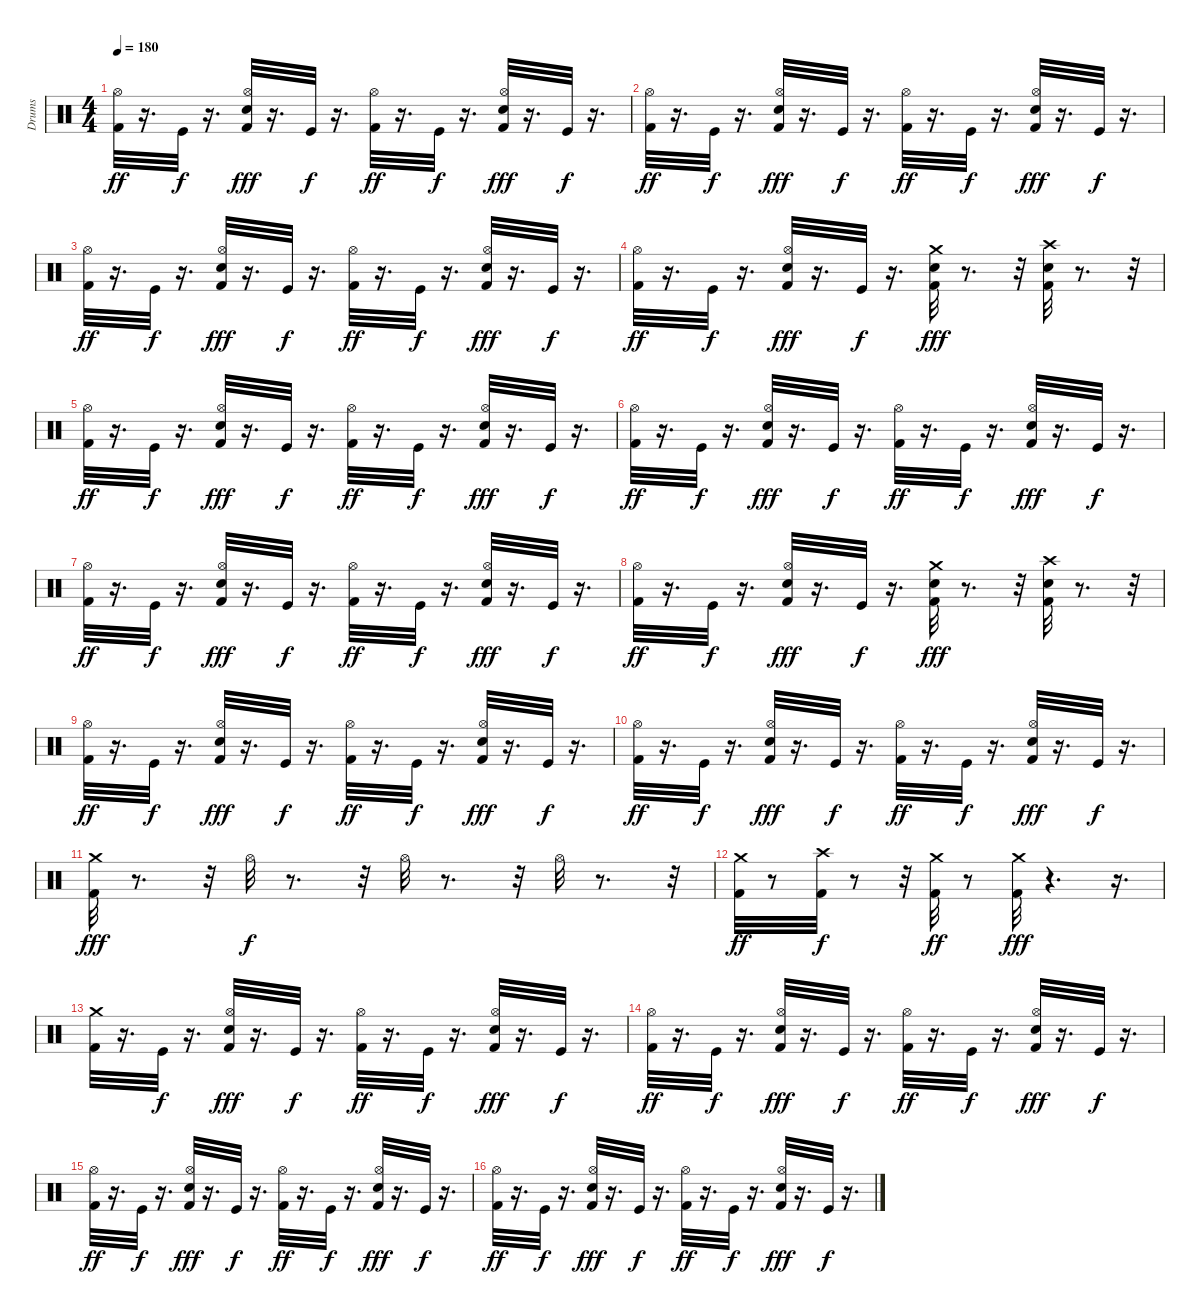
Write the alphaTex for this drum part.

\track ("Drums" "Drums") {instrument percussion}
\staff {score}
\articulation defaults
\ts (4 4)
\tempo 180
\clef neutral
\ks c
("Kick (hit) 2" "Hi-Hat (open)").32{dy ff} r.16{d} "Kick (hit)".32{dy f} r.16{d} ("Snare (hit) 2" "Kick (hit) 2" "Hi-Hat (open)").32{dy fff} r.16{d} "Kick (hit)".32{dy f} r.16{d} ("Kick (hit) 2" "Hi-Hat (open)").32{dy ff} r.16{d} "Kick (hit)".32{dy f} r.16{d} ("Snare (hit) 2" "Kick (hit) 2" "Hi-Hat (open)").32{dy fff} r.16{d} "Kick (hit)".32{dy f} r.16{d} |
("Kick (hit) 2" "Hi-Hat (open)").32{dy ff} r.16{d} "Kick (hit)".32{dy f} r.16{d} ("Snare (hit) 2" "Kick (hit) 2" "Hi-Hat (open)").32{dy fff} r.16{d} "Kick (hit)".32{dy f} r.16{d} ("Kick (hit) 2" "Hi-Hat (open)").32{dy ff} r.16{d} "Kick (hit)".32{dy f} r.16{d} ("Snare (hit) 2" "Kick (hit) 2" "Hi-Hat (open)").32{dy fff} r.16{d} "Kick (hit)".32{dy f} r.16{d} |
("Kick (hit) 2" "Hi-Hat (open)").32{dy ff} r.16{d} "Kick (hit)".32{dy f} r.16{d} ("Snare (hit) 2" "Kick (hit) 2" "Hi-Hat (open)").32{dy fff} r.16{d} "Kick (hit)".32{dy f} r.16{d} ("Kick (hit) 2" "Hi-Hat (open)").32{dy ff} r.16{d} "Kick (hit)".32{dy f} r.16{d} ("Snare (hit) 2" "Kick (hit) 2" "Hi-Hat (open)").32{dy fff} r.16{d} "Kick (hit)".32{dy f} r.16{d} |
("Kick (hit) 2" "Hi-Hat (open)").32{dy ff} r.16{d} "Kick (hit)".32{dy f} r.16{d} ("Snare (hit) 2" "Kick (hit) 2" "Hi-Hat (open)").32{dy fff} r.16{d} "Kick (hit)".32{dy f} r.16{d} ("Snare (hit) 2" "Kick (hit) 2" "Crash medium (hit)").32{dy fff} r.8{d} r.32 ("Snare (hit) 2" "Kick (hit) 2" "Crash high (hit)").32 r.8{d} r.32 |
("Kick (hit) 2" "Hi-Hat (open)").32{dy ff} r.16{d} "Kick (hit)".32{dy f} r.16{d} ("Snare (hit) 2" "Kick (hit) 2" "Hi-Hat (open)").32{dy fff} r.16{d} "Kick (hit)".32{dy f} r.16{d} ("Kick (hit) 2" "Hi-Hat (open)").32{dy ff} r.16{d} "Kick (hit)".32{dy f} r.16{d} ("Snare (hit) 2" "Kick (hit) 2" "Hi-Hat (open)").32{dy fff} r.16{d} "Kick (hit)".32{dy f} r.16{d} |
("Kick (hit) 2" "Hi-Hat (open)").32{dy ff} r.16{d} "Kick (hit)".32{dy f} r.16{d} ("Snare (hit) 2" "Kick (hit) 2" "Hi-Hat (open)").32{dy fff} r.16{d} "Kick (hit)".32{dy f} r.16{d} ("Kick (hit) 2" "Hi-Hat (open)").32{dy ff} r.16{d} "Kick (hit)".32{dy f} r.16{d} ("Snare (hit) 2" "Kick (hit) 2" "Hi-Hat (open)").32{dy fff} r.16{d} "Kick (hit)".32{dy f} r.16{d} |
("Kick (hit) 2" "Hi-Hat (open)").32{dy ff} r.16{d} "Kick (hit)".32{dy f} r.16{d} ("Snare (hit) 2" "Kick (hit) 2" "Hi-Hat (open)").32{dy fff} r.16{d} "Kick (hit)".32{dy f} r.16{d} ("Kick (hit) 2" "Hi-Hat (open)").32{dy ff} r.16{d} "Kick (hit)".32{dy f} r.16{d} ("Snare (hit) 2" "Kick (hit) 2" "Hi-Hat (open)").32{dy fff} r.16{d} "Kick (hit)".32{dy f} r.16{d} |
("Kick (hit) 2" "Hi-Hat (open)").32{dy ff} r.16{d} "Kick (hit)".32{dy f} r.16{d} ("Snare (hit) 2" "Kick (hit) 2" "Hi-Hat (open)").32{dy fff} r.16{d} "Kick (hit)".32{dy f} r.16{d} ("Snare (hit) 2" "Kick (hit) 2" "Crash medium (hit)").32{dy fff} r.8{d} r.32 ("Snare (hit) 2" "Kick (hit) 2" "Crash high (hit)").32 r.8{d} r.32 |
("Kick (hit) 2" "Hi-Hat (open)").32{dy ff} r.16{d} "Kick (hit)".32{dy f} r.16{d} ("Snare (hit) 2" "Kick (hit) 2" "Hi-Hat (open)").32{dy fff} r.16{d} "Kick (hit)".32{dy f} r.16{d} ("Kick (hit) 2" "Hi-Hat (open)").32{dy ff} r.16{d} "Kick (hit)".32{dy f} r.16{d} ("Snare (hit) 2" "Kick (hit) 2" "Hi-Hat (open)").32{dy fff} r.16{d} "Kick (hit)".32{dy f} r.16{d} |
("Kick (hit) 2" "Hi-Hat (open)").32{dy ff} r.16{d} "Kick (hit)".32{dy f} r.16{d} ("Snare (hit) 2" "Kick (hit) 2" "Hi-Hat (open)").32{dy fff} r.16{d} "Kick (hit)".32{dy f} r.16{d} ("Kick (hit) 2" "Hi-Hat (open)").32{dy ff} r.16{d} "Kick (hit)".32{dy f} r.16{d} ("Snare (hit) 2" "Kick (hit) 2" "Hi-Hat (open)").32{dy fff} r.16{d} "Kick (hit)".32{dy f} r.16{d} |
("Kick (hit) 2" "Crash medium (hit)").32{dy fff} r.8{d} r.32 "Hi-Hat (open)".32{dy f} r.8{d} r.32 "Hi-Hat (open)".32 r.8{d} r.32 "Hi-Hat (open)".32 r.8{d} r.32 |
("Crash medium (hit)" "Kick (hit) 2").32{dy ff} r.8 ("Crash high (hit)" "Kick (hit) 2").32{dy f} r.8 r.32 ("Crash medium (hit)" "Kick (hit) 2").32{dy ff} r.8 ("Kick (hit) 2" "Crash medium (hit)").32{dy fff} r.4{d} r.16{d} |
("Kick (hit) 2" "Crash medium (hit)").32 r.16{d} "Kick (hit)".32{dy f} r.16{d} ("Kick (hit) 2" "Snare (hit) 2" "Hi-Hat (open)").32{dy fff} r.16{d} "Kick (hit)".32{dy f} r.16{d} ("Kick (hit) 2" "Hi-Hat (open)").32{dy ff} r.16{d} "Kick (hit)".32{dy f} r.16{d} ("Kick (hit) 2" "Snare (hit) 2" "Hi-Hat (open)").32{dy fff} r.16{d} "Kick (hit)".32{dy f} r.16{d} |
("Kick (hit) 2" "Hi-Hat (open)").32{dy ff} r.16{d} "Kick (hit)".32{dy f} r.16{d} ("Kick (hit) 2" "Snare (hit) 2" "Hi-Hat (open)").32{dy fff} r.16{d} "Kick (hit)".32{dy f} r.16{d} ("Kick (hit) 2" "Hi-Hat (open)").32{dy ff} r.16{d} "Kick (hit)".32{dy f} r.16{d} ("Kick (hit) 2" "Snare (hit) 2" "Hi-Hat (open)").32{dy fff} r.16{d} "Kick (hit)".32{dy f} r.16{d} |
("Kick (hit) 2" "Hi-Hat (open)").32{dy ff} r.16{d} "Kick (hit)".32{dy f} r.16{d} ("Kick (hit) 2" "Snare (hit) 2" "Hi-Hat (open)").32{dy fff} r.16{d} "Kick (hit)".32{dy f} r.16{d} ("Kick (hit) 2" "Hi-Hat (open)").32{dy ff} r.16{d} "Kick (hit)".32{dy f} r.16{d} ("Kick (hit) 2" "Snare (hit) 2" "Hi-Hat (open)").32{dy fff} r.16{d} "Kick (hit)".32{dy f} r.16{d} |
("Kick (hit) 2" "Hi-Hat (open)").32{dy ff} r.16{d} "Kick (hit)".32{dy f} r.16{d} ("Kick (hit) 2" "Snare (hit) 2" "Hi-Hat (open)").32{dy fff} r.16{d} "Kick (hit)".32{dy f} r.16{d} ("Kick (hit) 2" "Hi-Hat (open)").32{dy ff} r.16{d} "Kick (hit)".32{dy f} r.16{d} ("Kick (hit) 2" "Snare (hit) 2" "Hi-Hat (open)").32{dy fff} r.16{d} "Kick (hit)".32{dy f} r.16{d}
